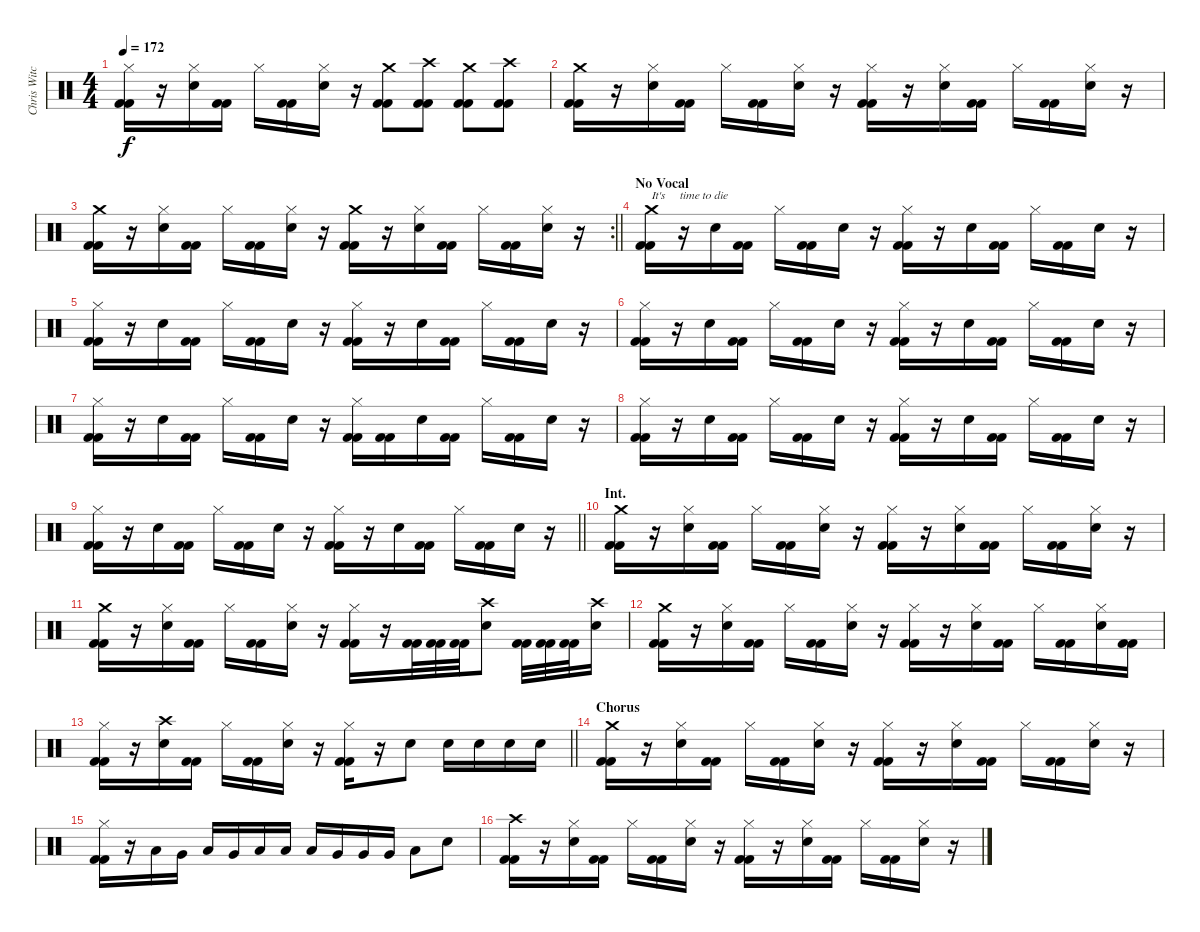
\track ("Chris Witchhunter" "Chris Witc") {instrument percussion}
\staff {score}
\articulation defaults
\ts (4 4)
\tempo 172
\clef neutral
\ks c
("Kick (hit) 2" "Kick (hit) 2" "Hi-Hat (closed)").16{dy f} r.16 ("Snare (hit) 2" "Hi-Hat (closed)").16 ("Kick (hit) 2" "Kick (hit) 2").16 "Hi-Hat (closed)".16 ("Kick (hit) 2" "Kick (hit) 2").16 ("Snare (hit) 2" "Hi-Hat (closed)").16 r.16 ("Kick (hit) 2" "Kick (hit) 2" "Crash medium (hit)").8 ("Kick (hit) 2" "Kick (hit) 2" "Crash high (hit)").8 ("Kick (hit) 2" "Kick (hit) 2" "Crash medium (hit)").8 ("Kick (hit) 2" "Kick (hit) 2" "Crash high (hit)").8 |
("Kick (hit) 2" "Kick (hit) 2" "Crash medium (hit)").16 r.16 ("Snare (hit) 2" "Hi-Hat (closed)").16 ("Kick (hit) 2" "Kick (hit) 2").16 "Hi-Hat (closed)".16 ("Kick (hit) 2" "Kick (hit) 2").16 ("Snare (hit) 2" "Hi-Hat (closed)").16 r.16 ("Kick (hit) 2" "Kick (hit) 2" "Hi-Hat (closed)").16 r.16 ("Snare (hit) 2" "Hi-Hat (closed)").16 ("Kick (hit) 2" "Kick (hit) 2").16 "Hi-Hat (closed)".16 ("Kick (hit) 2" "Kick (hit) 2").16 ("Snare (hit) 2" "Hi-Hat (closed)").16 r.16 |
\rc 2
\barLineRight lightlight
("Kick (hit) 2" "Kick (hit) 2" "Crash medium (hit)").16 r.16 ("Snare (hit) 2" "Hi-Hat (closed)").16 ("Kick (hit) 2" "Kick (hit) 2").16 "Hi-Hat (closed)".16 ("Kick (hit) 2" "Kick (hit) 2").16 ("Snare (hit) 2" "Hi-Hat (closed)").16 r.16 ("Kick (hit) 2" "Kick (hit) 2" "Crash medium (hit)").16 r.16 ("Snare (hit) 2" "Hi-Hat (closed)").16 ("Kick (hit) 2" "Kick (hit) 2").16 "Hi-Hat (closed)".16 ("Kick (hit) 2" "Kick (hit) 2").16 ("Snare (hit) 2" "Hi-Hat (closed)").16 r.16 |
\section ("" "No Vocal ")
("Kick (hit) 2" "Kick (hit) 2" "Crash medium (hit)").16{txt "It's     time to die"} r.16 "Snare (hit) 2".16 ("Kick (hit) 2" "Kick (hit) 2").16 "Hi-Hat (closed)".16 ("Kick (hit) 2" "Kick (hit) 2").16 "Snare (hit) 2".16 r.16 ("Kick (hit) 2" "Kick (hit) 2" "Hi-Hat (closed)").16 r.16 "Snare (hit) 2".16 ("Kick (hit) 2" "Kick (hit) 2").16 "Hi-Hat (closed)".16 ("Kick (hit) 2" "Kick (hit) 2").16 "Snare (hit) 2".16 r.16 |
("Kick (hit) 2" "Kick (hit) 2" "Hi-Hat (closed)").16 r.16 "Snare (hit) 2".16 ("Kick (hit) 2" "Kick (hit) 2").16 "Hi-Hat (closed)".16 ("Kick (hit) 2" "Kick (hit) 2").16 "Snare (hit) 2".16 r.16 ("Kick (hit) 2" "Kick (hit) 2" "Hi-Hat (closed)").16 r.16 "Snare (hit) 2".16 ("Kick (hit) 2" "Kick (hit) 2").16 "Hi-Hat (closed)".16 ("Kick (hit) 2" "Kick (hit) 2").16 "Snare (hit) 2".16 r.16 |
("Kick (hit) 2" "Kick (hit) 2" "Hi-Hat (closed)").16 r.16 "Snare (hit) 2".16 ("Kick (hit) 2" "Kick (hit) 2").16 "Hi-Hat (closed)".16 ("Kick (hit) 2" "Kick (hit) 2").16 "Snare (hit) 2".16 r.16 ("Kick (hit) 2" "Kick (hit) 2" "Hi-Hat (closed)").16 r.16 "Snare (hit) 2".16 ("Kick (hit) 2" "Kick (hit) 2").16 "Hi-Hat (closed)".16 ("Kick (hit) 2" "Kick (hit) 2").16 "Snare (hit) 2".16 r.16 |
("Kick (hit) 2" "Kick (hit) 2" "Hi-Hat (closed)").16 r.16 "Snare (hit) 2".16 ("Kick (hit) 2" "Kick (hit) 2").16 "Hi-Hat (closed)".16 ("Kick (hit) 2" "Kick (hit) 2").16 "Snare (hit) 2".16 r.16 ("Kick (hit) 2" "Kick (hit) 2" "Hi-Hat (closed)").16 ("Kick (hit) 2" "Kick (hit) 2").16 "Snare (hit) 2".16 ("Kick (hit) 2" "Kick (hit) 2").16 "Hi-Hat (closed)".16 ("Kick (hit) 2" "Kick (hit) 2").16 "Snare (hit) 2".16 r.16 |
("Kick (hit) 2" "Kick (hit) 2" "Hi-Hat (closed)").16 r.16 "Snare (hit) 2".16 ("Kick (hit) 2" "Kick (hit) 2").16 "Hi-Hat (closed)".16 ("Kick (hit) 2" "Kick (hit) 2").16 "Snare (hit) 2".16 r.16 ("Kick (hit) 2" "Kick (hit) 2" "Hi-Hat (closed)").16 r.16 "Snare (hit) 2".16 ("Kick (hit) 2" "Kick (hit) 2").16 "Hi-Hat (closed)".16 ("Kick (hit) 2" "Kick (hit) 2").16 "Snare (hit) 2".16 r.16 |
\barLineRight lightlight
("Kick (hit) 2" "Kick (hit) 2" "Hi-Hat (closed)").16 r.16 "Snare (hit) 2".16 ("Kick (hit) 2" "Kick (hit) 2").16 "Hi-Hat (closed)".16 ("Kick (hit) 2" "Kick (hit) 2").16 "Snare (hit) 2".16 r.16 ("Kick (hit) 2" "Kick (hit) 2" "Hi-Hat (closed)").16 r.16 "Snare (hit) 2".16 ("Kick (hit) 2" "Kick (hit) 2").16 "Hi-Hat (closed)".16 ("Kick (hit) 2" "Kick (hit) 2").16 "Snare (hit) 2".16 r.16 |
\section ("" "Int.")
("Kick (hit) 2" "Kick (hit) 2" "Crash medium (hit)").16 r.16 ("Snare (hit) 2" "Hi-Hat (closed)").16 ("Kick (hit) 2" "Kick (hit) 2").16 "Hi-Hat (closed)".16 ("Kick (hit) 2" "Kick (hit) 2").16 ("Snare (hit) 2" "Hi-Hat (closed)").16 r.16 ("Kick (hit) 2" "Kick (hit) 2" "Hi-Hat (closed)").16 r.16 ("Snare (hit) 2" "Hi-Hat (closed)").16 ("Kick (hit) 2" "Kick (hit) 2").16 "Hi-Hat (closed)".16 ("Kick (hit) 2" "Kick (hit) 2").16 ("Snare (hit) 2" "Hi-Hat (closed)").16 r.16 |
("Kick (hit) 2" "Kick (hit) 2" "Crash medium (hit)").16 r.16 ("Snare (hit) 2" "Hi-Hat (closed)").16 ("Kick (hit) 2" "Kick (hit) 2").16 "Hi-Hat (closed)".16 ("Kick (hit) 2" "Kick (hit) 2").16 ("Snare (hit) 2" "Hi-Hat (closed)").16 r.16 ("Kick (hit) 2" "Kick (hit) 2" "Hi-Hat (closed)").16 r.16 ("Kick (hit) 2" "Kick (hit) 2").32 ("Kick (hit) 2" "Kick (hit) 2").32 ("Kick (hit) 2" "Kick (hit) 2").32 ("Crash high (hit)" "Snare (hit) 2").8 ("Kick (hit) 2" "Kick (hit) 2").32 ("Kick (hit) 2" "Kick (hit) 2").32 ("Kick (hit) 2" "Kick (hit) 2").32 ("Crash high (hit)" "Snare (hit) 2").16 |
("Kick (hit) 2" "Kick (hit) 2" "Crash medium (hit)").16 r.16 ("Snare (hit) 2" "Hi-Hat (closed)").16 ("Kick (hit) 2" "Kick (hit) 2").16 "Hi-Hat (closed)".16 ("Kick (hit) 2" "Kick (hit) 2").16 ("Snare (hit) 2" "Hi-Hat (closed)").16 r.16 ("Kick (hit) 2" "Kick (hit) 2" "Hi-Hat (closed)").16 r.16 ("Snare (hit) 2" "Hi-Hat (closed)").16 ("Kick (hit) 2" "Kick (hit) 2").16 "Hi-Hat (closed)".16 ("Kick (hit) 2" "Kick (hit) 2").16 ("Snare (hit) 2" "Hi-Hat (closed)").16 ("Kick (hit) 2" "Kick (hit) 2").16 |
\barLineRight lightlight
("Kick (hit) 2" "Kick (hit) 2" "Hi-Hat (closed)").16 r.16 ("Snare (hit) 2" "Crash high (hit)").16 ("Kick (hit) 2" "Kick (hit) 2").16 "Hi-Hat (closed)".16 ("Kick (hit) 2" "Kick (hit) 2").16 ("Snare (hit) 2" "Hi-Hat (closed)").16 r.16 ("Kick (hit) 2" "Kick (hit) 2" "Hi-Hat (closed)").16 r.16 "Snare (hit) 2".8 "Snare (hit) 2".16 "Snare (hit) 2".16 "Snare (hit) 2".16 "Snare (hit) 2".16 |
\section ("" "Chorus")
("Kick (hit) 2" "Kick (hit) 2" "Crash medium (hit)").16 r.16 ("Snare (hit) 2" "Hi-Hat (closed)").16 ("Kick (hit) 2" "Kick (hit) 2").16 "Hi-Hat (closed)".16 ("Kick (hit) 2" "Kick (hit) 2").16 ("Snare (hit) 2" "Hi-Hat (closed)").16 r.16 ("Kick (hit) 2" "Kick (hit) 2" "Hi-Hat (closed)").16 r.16 ("Snare (hit) 2" "Hi-Hat (closed)").16 ("Kick (hit) 2" "Kick (hit) 2").16 "Hi-Hat (closed)".16 ("Kick (hit) 2" "Kick (hit) 2").16 ("Snare (hit) 2" "Hi-Hat (closed)").16 r.16 |
("Kick (hit) 2" "Kick (hit) 2" "Hi-Hat (closed)").16 r.16 "Low Tom (hit)".16 "Very Low Tom (hit)".16 "Low Tom (hit)".16 "Very Low Tom (hit)".16 "Low Tom (hit)".16 "Low Tom (hit)".16 "Low Tom (hit)".16 "Very Low Tom (hit)".16 "Very Low Tom (hit)".16 "Very Low Tom (hit)".16 "Low Floor Tom (hit)".8 "Snare (hit) 2".8 |
("Kick (hit) 2" "Kick (hit) 2" "Crash high (hit)").16 r.16 ("Snare (hit) 2" "Hi-Hat (closed)").16 ("Kick (hit) 2" "Kick (hit) 2").16 "Hi-Hat (closed)".16 ("Kick (hit) 2" "Kick (hit) 2").16 ("Snare (hit) 2" "Hi-Hat (closed)").16 r.16 ("Kick (hit) 2" "Kick (hit) 2" "Hi-Hat (closed)").16 r.16 ("Snare (hit) 2" "Hi-Hat (closed)").16 ("Kick (hit) 2" "Kick (hit) 2").16 "Hi-Hat (closed)".16 ("Kick (hit) 2" "Kick (hit) 2").16 ("Snare (hit) 2" "Hi-Hat (closed)").16 r.16
